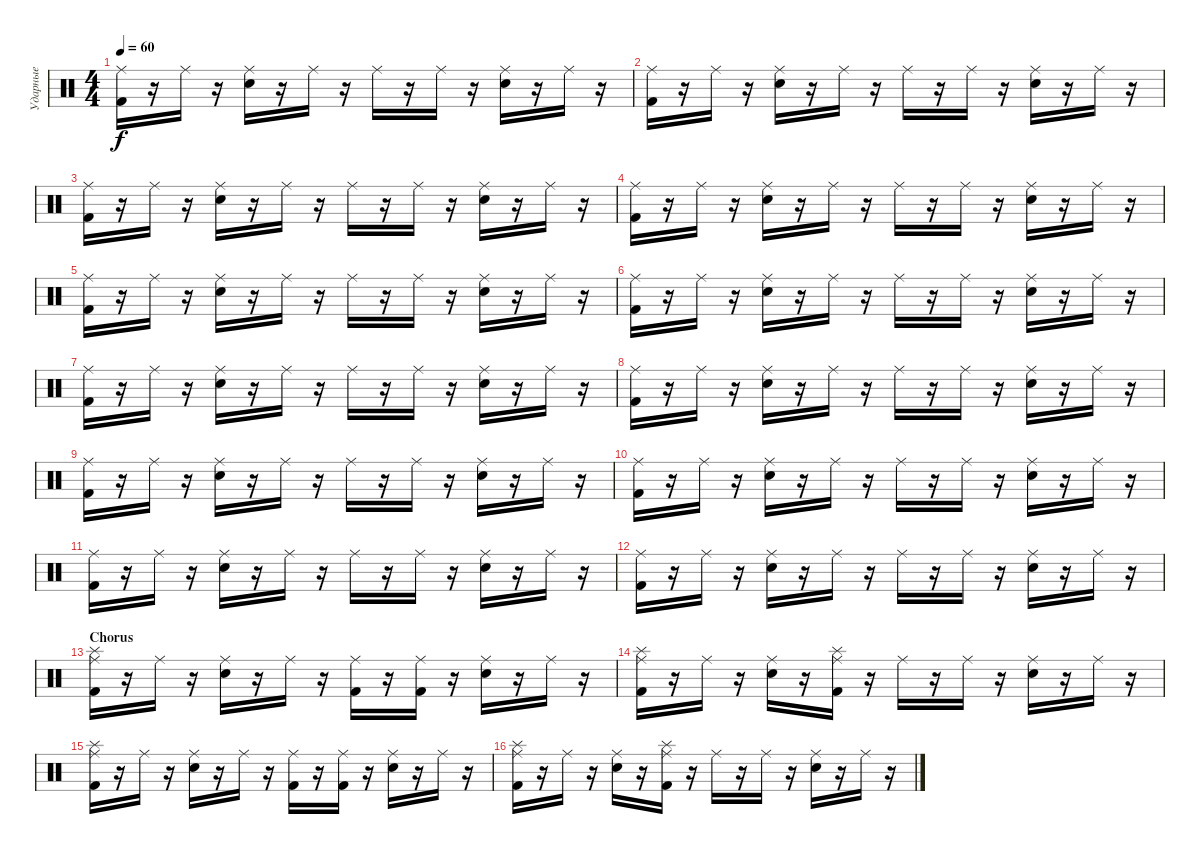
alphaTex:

\track ("Ударные" "Ударные") {instrument percussion}
\staff {score}
\articulation defaults
\ts (4 4)
\tempo 60
\clef neutral
\ks c
("Ride (middle)" "Kick (hit) 2").16{dy f} r.16 "Ride (middle)".16 r.16 ("Ride (middle)" "Electric Snare (hit)").16 r.16 "Ride (middle)".16 r.16 "Ride (middle)".16 r.16 "Ride (middle)".16 r.16 ("Ride (middle)" "Electric Snare (hit)").16 r.16 "Ride (middle)".16 r.16 |
("Ride (middle)" "Kick (hit) 2").16 r.16 "Ride (middle)".16 r.16 ("Ride (middle)" "Electric Snare (hit)").16 r.16 "Ride (middle)".16 r.16 "Ride (middle)".16 r.16 "Ride (middle)".16 r.16 ("Ride (middle)" "Electric Snare (hit)").16 r.16 "Ride (middle)".16 r.16 |
("Ride (middle)" "Kick (hit) 2").16 r.16 "Ride (middle)".16 r.16 ("Ride (middle)" "Electric Snare (hit)").16 r.16 "Ride (middle)".16 r.16 "Ride (middle)".16 r.16 "Ride (middle)".16 r.16 ("Ride (middle)" "Electric Snare (hit)").16 r.16 "Ride (middle)".16 r.16 |
("Ride (middle)" "Kick (hit) 2").16 r.16 "Ride (middle)".16 r.16 ("Ride (middle)" "Electric Snare (hit)").16 r.16 "Ride (middle)".16 r.16 "Ride (middle)".16 r.16 "Ride (middle)".16 r.16 ("Ride (middle)" "Electric Snare (hit)").16 r.16 "Ride (middle)".16 r.16 |
("Ride (middle)" "Kick (hit) 2").16 r.16 "Ride (middle)".16 r.16 ("Ride (middle)" "Electric Snare (hit)").16 r.16 "Ride (middle)".16 r.16 "Ride (middle)".16 r.16 "Ride (middle)".16 r.16 ("Ride (middle)" "Electric Snare (hit)").16 r.16 "Ride (middle)".16 r.16 |
("Ride (middle)" "Kick (hit) 2").16 r.16 "Ride (middle)".16 r.16 ("Ride (middle)" "Electric Snare (hit)").16 r.16 "Ride (middle)".16 r.16 "Ride (middle)".16 r.16 "Ride (middle)".16 r.16 ("Ride (middle)" "Electric Snare (hit)").16 r.16 "Ride (middle)".16 r.16 |
("Ride (middle)" "Kick (hit) 2").16 r.16 "Ride (middle)".16 r.16 ("Ride (middle)" "Electric Snare (hit)").16 r.16 "Ride (middle)".16 r.16 "Ride (middle)".16 r.16 "Ride (middle)".16 r.16 ("Ride (middle)" "Electric Snare (hit)").16 r.16 "Ride (middle)".16 r.16 |
("Ride (middle)" "Kick (hit) 2").16 r.16 "Ride (middle)".16 r.16 ("Ride (middle)" "Electric Snare (hit)").16 r.16 "Ride (middle)".16 r.16 "Ride (middle)".16 r.16 "Ride (middle)".16 r.16 ("Ride (middle)" "Electric Snare (hit)").16 r.16 "Ride (middle)".16 r.16 |
("Ride (middle)" "Kick (hit) 2").16 r.16 "Ride (middle)".16 r.16 ("Ride (middle)" "Electric Snare (hit)").16 r.16 "Ride (middle)".16 r.16 "Ride (middle)".16 r.16 "Ride (middle)".16 r.16 ("Ride (middle)" "Electric Snare (hit)").16 r.16 "Ride (middle)".16 r.16 |
("Ride (middle)" "Kick (hit) 2").16 r.16 "Ride (middle)".16 r.16 ("Ride (middle)" "Electric Snare (hit)").16 r.16 "Ride (middle)".16 r.16 "Ride (middle)".16 r.16 "Ride (middle)".16 r.16 ("Ride (middle)" "Electric Snare (hit)").16 r.16 "Ride (middle)".16 r.16 |
("Ride (middle)" "Kick (hit) 2").16 r.16 "Ride (middle)".16 r.16 ("Ride (middle)" "Electric Snare (hit)").16 r.16 "Ride (middle)".16 r.16 "Ride (middle)".16 r.16 "Ride (middle)".16 r.16 ("Ride (middle)" "Electric Snare (hit)").16 r.16 "Ride (middle)".16 r.16 |
("Ride (middle)" "Kick (hit) 2").16 r.16 "Ride (middle)".16 r.16 ("Ride (middle)" "Electric Snare (hit)").16 r.16 "Ride (middle)".16 r.16 "Ride (middle)".16 r.16 "Ride (middle)".16 r.16 ("Ride (middle)" "Electric Snare (hit)").16 r.16 "Ride (middle)".16 r.16 |
\section ("" "Chorus")
("Splash (hit)" "Ride (middle)" "Kick (hit) 2").16 r.16 "Ride (middle)".16 r.16 ("Ride (middle)" "Electric Snare (hit)").16 r.16 "Ride (middle)".16 r.16 ("Ride (middle)" "Kick (hit) 2").16 r.16 ("Ride (middle)" "Kick (hit) 2").16 r.16 ("Ride (middle)" "Electric Snare (hit)").16 r.16 "Ride (middle)".16 r.16 |
("Splash (hit)" "Ride (middle)" "Kick (hit) 2").16 r.16 "Ride (middle)".16 r.16 ("Ride (middle)" "Electric Snare (hit)").16 r.16 ("Splash (hit)" "Ride (middle)" "Kick (hit) 2").16 r.16 "Ride (middle)".16 r.16 "Ride (middle)".16 r.16 ("Ride (middle)" "Electric Snare (hit)").16 r.16 "Ride (middle)".16 r.16 |
("Splash (hit)" "Ride (middle)" "Kick (hit) 2").16 r.16 "Ride (middle)".16 r.16 ("Ride (middle)" "Electric Snare (hit)").16 r.16 "Ride (middle)".16 r.16 ("Ride (middle)" "Kick (hit) 2").16 r.16 ("Ride (middle)" "Kick (hit) 2").16 r.16 ("Ride (middle)" "Electric Snare (hit)").16 r.16 "Ride (middle)".16 r.16 |
("Splash (hit)" "Ride (middle)" "Kick (hit) 2").16 r.16 "Ride (middle)".16 r.16 ("Ride (middle)" "Electric Snare (hit)").16 r.16 ("Splash (hit)" "Ride (middle)" "Kick (hit) 2").16 r.16 "Ride (middle)".16 r.16 "Ride (middle)".16 r.16 ("Ride (middle)" "Electric Snare (hit)").16 r.16 "Ride (middle)".16 r.16
